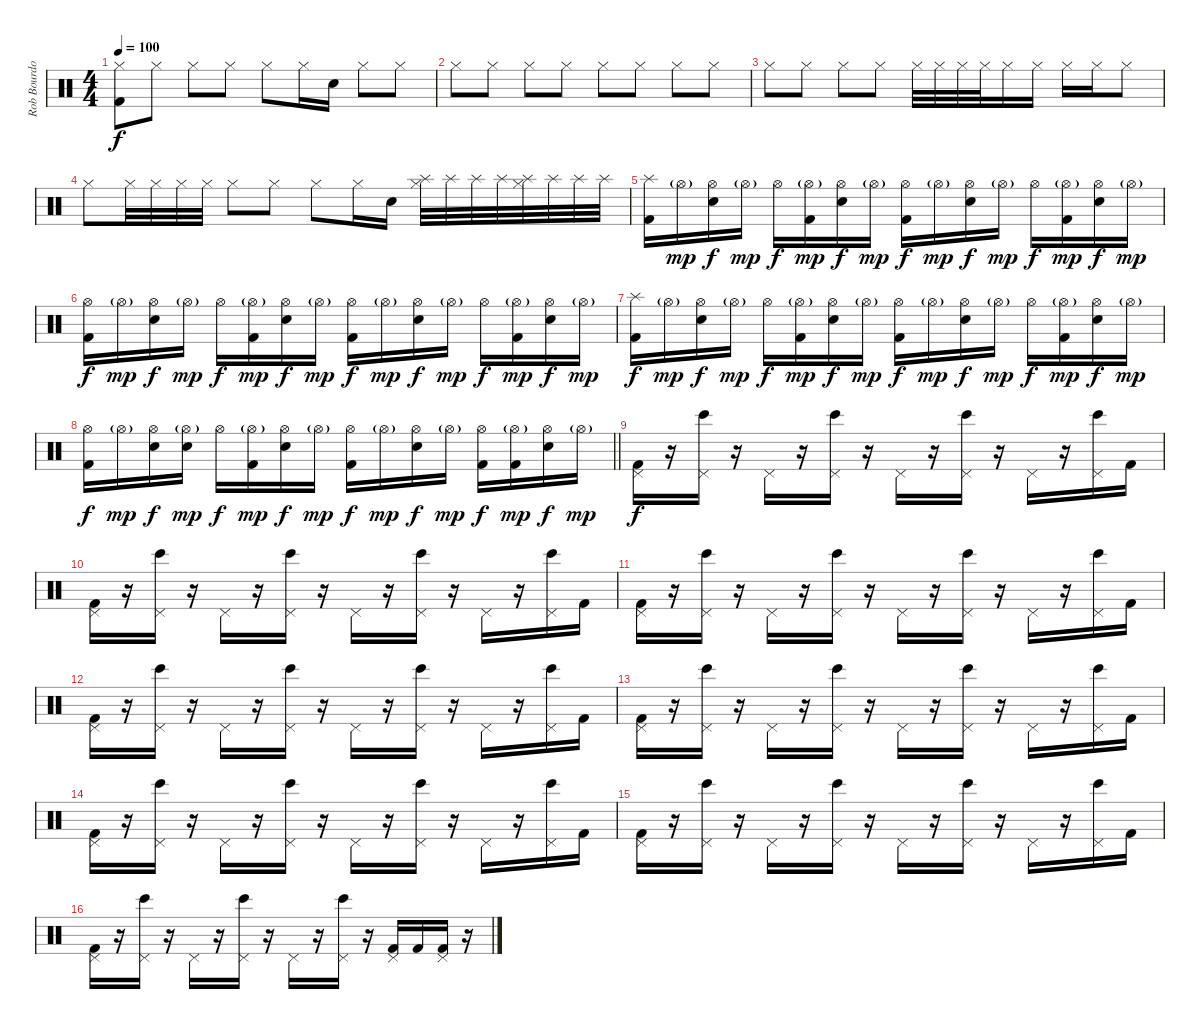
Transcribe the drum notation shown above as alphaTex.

\track ("Rob Bourdon (Drums)" "Rob Bourdo") {instrument percussion}
\staff {score}
\articulation defaults
\ts (4 4)
\tempo 100
\clef neutral
\ks c
("Hi-Hat (closed)" "Kick (hit) 2").8{dy f} "Hi-Hat (closed)".8 "Hi-Hat (closed)".8 "Hi-Hat (closed)".8 "Hi-Hat (closed)".8 "Hi-Hat (closed)".16 "Electric Snare (hit)".16 "Hi-Hat (closed)".8 "Hi-Hat (closed)".8 |
"Hi-Hat (closed)".8 "Hi-Hat (closed)".8 "Hi-Hat (closed)".8 "Hi-Hat (closed)".8 "Hi-Hat (closed)".8 "Hi-Hat (closed)".8 "Hi-Hat (closed)".8 "Hi-Hat (closed)".8 |
"Hi-Hat (closed)".8 "Hi-Hat (closed)".8 "Hi-Hat (closed)".8 "Hi-Hat (closed)".8 "Hi-Hat (closed)".32 "Hi-Hat (closed)".32 "Hi-Hat (closed)".32 "Hi-Hat (closed)".32 "Hi-Hat (closed)".16 "Hi-Hat (closed)".16 "Hi-Hat (closed)".16 "Hi-Hat (closed)".16 "Hi-Hat (closed)".8 |
"Hi-Hat (closed)".8 "Hi-Hat (closed)".32 "Hi-Hat (closed)".32 "Hi-Hat (closed)".32 "Hi-Hat (closed)".32 "Hi-Hat (closed)".8 "Hi-Hat (closed)".8 "Hi-Hat (closed)".8 "Hi-Hat (closed)".16 "Electric Snare (hit)".16 ("Hi-Hat (closed)" "Splash (hit)").32 "Splash (hit)".32 "Splash (hit)".32 "Splash (hit)".32 ("Hi-Hat (closed)" "Splash (hit)").32 "Splash (hit)".32 "Splash (hit)".32 "Splash (hit)".32 |
("Splash (hit)" "Kick (hit) 2").16 "Hi-Hat (open)"{g}.16{dy mp} ("Hi-Hat (open)" "Electric Snare (hit)").16{dy f} "Hi-Hat (open)"{g}.16{dy mp} "Hi-Hat (open)".16{dy f} ("Hi-Hat (open)"{g} "Kick (hit) 2").16{dy mp} ("Hi-Hat (open)" "Electric Snare (hit)").16{dy f} "Hi-Hat (open)"{g}.16{dy mp} ("Hi-Hat (open)" "Kick (hit) 2").16{dy f} "Hi-Hat (open)"{g}.16{dy mp} ("Hi-Hat (open)" "Electric Snare (hit)").16{dy f} "Hi-Hat (open)"{g}.16{dy mp} "Hi-Hat (open)".16{dy f} ("Hi-Hat (open)"{g} "Kick (hit) 2").16{dy mp} ("Hi-Hat (open)" "Electric Snare (hit)").16{dy f} "Hi-Hat (open)"{g}.16{dy mp} |
("Hi-Hat (open)" "Kick (hit) 2").16{dy f} "Hi-Hat (open)"{g}.16{dy mp} ("Hi-Hat (open)" "Electric Snare (hit)").16{dy f} "Hi-Hat (open)"{g}.16{dy mp} "Hi-Hat (open)".16{dy f} ("Hi-Hat (open)"{g} "Kick (hit) 2").16{dy mp} ("Hi-Hat (open)" "Electric Snare (hit)").16{dy f} "Hi-Hat (open)"{g}.16{dy mp} ("Hi-Hat (open)" "Kick (hit) 2").16{dy f} "Hi-Hat (open)"{g}.16{dy mp} ("Hi-Hat (open)" "Electric Snare (hit)").16{dy f} "Hi-Hat (open)"{g}.16{dy mp} "Hi-Hat (open)".16{dy f} ("Hi-Hat (open)"{g} "Kick (hit) 2").16{dy mp} ("Hi-Hat (open)" "Electric Snare (hit)").16{dy f} "Hi-Hat (open)"{g}.16{dy mp} |
("Splash (hit)" "Kick (hit) 2").16{dy f} "Hi-Hat (open)"{g}.16{dy mp} ("Hi-Hat (open)" "Electric Snare (hit)").16{dy f} "Hi-Hat (open)"{g}.16{dy mp} "Hi-Hat (open)".16{dy f} ("Hi-Hat (open)"{g} "Kick (hit) 2").16{dy mp} ("Hi-Hat (open)" "Electric Snare (hit)").16{dy f} "Hi-Hat (open)"{g}.16{dy mp} ("Hi-Hat (open)" "Kick (hit) 2").16{dy f} "Hi-Hat (open)"{g}.16{dy mp} ("Hi-Hat (open)" "Electric Snare (hit)").16{dy f} "Hi-Hat (open)"{g}.16{dy mp} "Hi-Hat (open)".16{dy f} ("Hi-Hat (open)"{g} "Kick (hit) 2").16{dy mp} ("Hi-Hat (open)" "Electric Snare (hit)").16{dy f} "Hi-Hat (open)"{g}.16{dy mp} |
\barLineRight lightlight
("Hi-Hat (open)" "Kick (hit) 2").16{dy f} "Hi-Hat (open)"{g}.16{dy mp} ("Hi-Hat (open)" "Electric Snare (hit)").16{dy f} ("Hi-Hat (open)"{g} "Electric Snare (hit)").16{dy mp} "Hi-Hat (open)".16{dy f} ("Hi-Hat (open)"{g} "Kick (hit) 2").16{dy mp} ("Hi-Hat (open)" "Electric Snare (hit)").16{dy f} "Hi-Hat (open)"{g}.16{dy mp} ("Hi-Hat (open)" "Kick (hit) 2").16{dy f} "Hi-Hat (open)"{g}.16{dy mp} ("Hi-Hat (open)" "Electric Snare (hit)").16{dy f} "Hi-Hat (open)"{g}.16{dy mp} ("Hi-Hat (open)" "Kick (hit) 2").16{dy f} ("Hi-Hat (open)"{g} "Kick (hit) 2").16{dy mp} ("Hi-Hat (open)" "Electric Snare (hit)").16{dy f} "Hi-Hat (open)"{g}.16{dy mp} |
("Pedal Hi-Hat (hit)" "Kick (hit) 2").16{dy f} r.16 ("Bongo High (hit)" "Pedal Hi-Hat (hit)").16 r.16 "Pedal Hi-Hat (hit)".16 r.16 ("Bongo High (hit)" "Pedal Hi-Hat (hit)").16 r.16 "Pedal Hi-Hat (hit)".16 r.16 ("Bongo High (hit)" "Pedal Hi-Hat (hit)").16 r.16 "Pedal Hi-Hat (hit)".16 r.16 ("Bongo High (hit)" "Pedal Hi-Hat (hit)").16 "Kick (hit) 2".16 |
("Pedal Hi-Hat (hit)" "Kick (hit) 2").16 r.16 ("Bongo High (hit)" "Pedal Hi-Hat (hit)").16 r.16 "Pedal Hi-Hat (hit)".16 r.16 ("Bongo High (hit)" "Pedal Hi-Hat (hit)").16 r.16 "Pedal Hi-Hat (hit)".16 r.16 ("Bongo High (hit)" "Pedal Hi-Hat (hit)").16 r.16 "Pedal Hi-Hat (hit)".16 r.16 ("Bongo High (hit)" "Pedal Hi-Hat (hit)").16 "Kick (hit) 2".16 |
("Pedal Hi-Hat (hit)" "Kick (hit) 2").16 r.16 ("Bongo High (hit)" "Pedal Hi-Hat (hit)").16 r.16 "Pedal Hi-Hat (hit)".16 r.16 ("Bongo High (hit)" "Pedal Hi-Hat (hit)").16 r.16 "Pedal Hi-Hat (hit)".16 r.16 ("Bongo High (hit)" "Pedal Hi-Hat (hit)").16 r.16 "Pedal Hi-Hat (hit)".16 r.16 ("Bongo High (hit)" "Pedal Hi-Hat (hit)").16 "Kick (hit) 2".16 |
("Pedal Hi-Hat (hit)" "Kick (hit) 2").16 r.16 ("Bongo High (hit)" "Pedal Hi-Hat (hit)").16 r.16 "Pedal Hi-Hat (hit)".16 r.16 ("Bongo High (hit)" "Pedal Hi-Hat (hit)").16 r.16 "Pedal Hi-Hat (hit)".16 r.16 ("Bongo High (hit)" "Pedal Hi-Hat (hit)").16 r.16 "Pedal Hi-Hat (hit)".16 r.16 ("Bongo High (hit)" "Pedal Hi-Hat (hit)").16 "Kick (hit) 2".16 |
("Pedal Hi-Hat (hit)" "Kick (hit) 2").16 r.16 ("Bongo High (hit)" "Pedal Hi-Hat (hit)").16 r.16 "Pedal Hi-Hat (hit)".16 r.16 ("Bongo High (hit)" "Pedal Hi-Hat (hit)").16 r.16 "Pedal Hi-Hat (hit)".16 r.16 ("Bongo High (hit)" "Pedal Hi-Hat (hit)").16 r.16 "Pedal Hi-Hat (hit)".16 r.16 ("Bongo High (hit)" "Pedal Hi-Hat (hit)").16 "Kick (hit) 2".16 |
("Pedal Hi-Hat (hit)" "Kick (hit) 2").16 r.16 ("Bongo High (hit)" "Pedal Hi-Hat (hit)").16 r.16 "Pedal Hi-Hat (hit)".16 r.16 ("Bongo High (hit)" "Pedal Hi-Hat (hit)").16 r.16 "Pedal Hi-Hat (hit)".16 r.16 ("Bongo High (hit)" "Pedal Hi-Hat (hit)").16 r.16 "Pedal Hi-Hat (hit)".16 r.16 ("Bongo High (hit)" "Pedal Hi-Hat (hit)").16 "Kick (hit) 2".16 |
("Pedal Hi-Hat (hit)" "Kick (hit) 2").16 r.16 ("Bongo High (hit)" "Pedal Hi-Hat (hit)").16 r.16 "Pedal Hi-Hat (hit)".16 r.16 ("Bongo High (hit)" "Pedal Hi-Hat (hit)").16 r.16 "Pedal Hi-Hat (hit)".16 r.16 ("Bongo High (hit)" "Pedal Hi-Hat (hit)").16 r.16 "Pedal Hi-Hat (hit)".16 r.16 ("Bongo High (hit)" "Pedal Hi-Hat (hit)").16 "Kick (hit) 2".16 |
("Pedal Hi-Hat (hit)" "Kick (hit) 2").16 r.16 ("Bongo High (hit)" "Pedal Hi-Hat (hit)").16 r.16 "Pedal Hi-Hat (hit)".16 r.16 ("Bongo High (hit)" "Pedal Hi-Hat (hit)").16 r.16 "Pedal Hi-Hat (hit)".16 r.16 ("Bongo High (hit)" "Pedal Hi-Hat (hit)").16 r.16 ("Pedal Hi-Hat (hit)" "Kick (hit) 2").16 "Kick (hit) 2".16 ("Pedal Hi-Hat (hit)" "Kick (hit) 2").16 r.16
